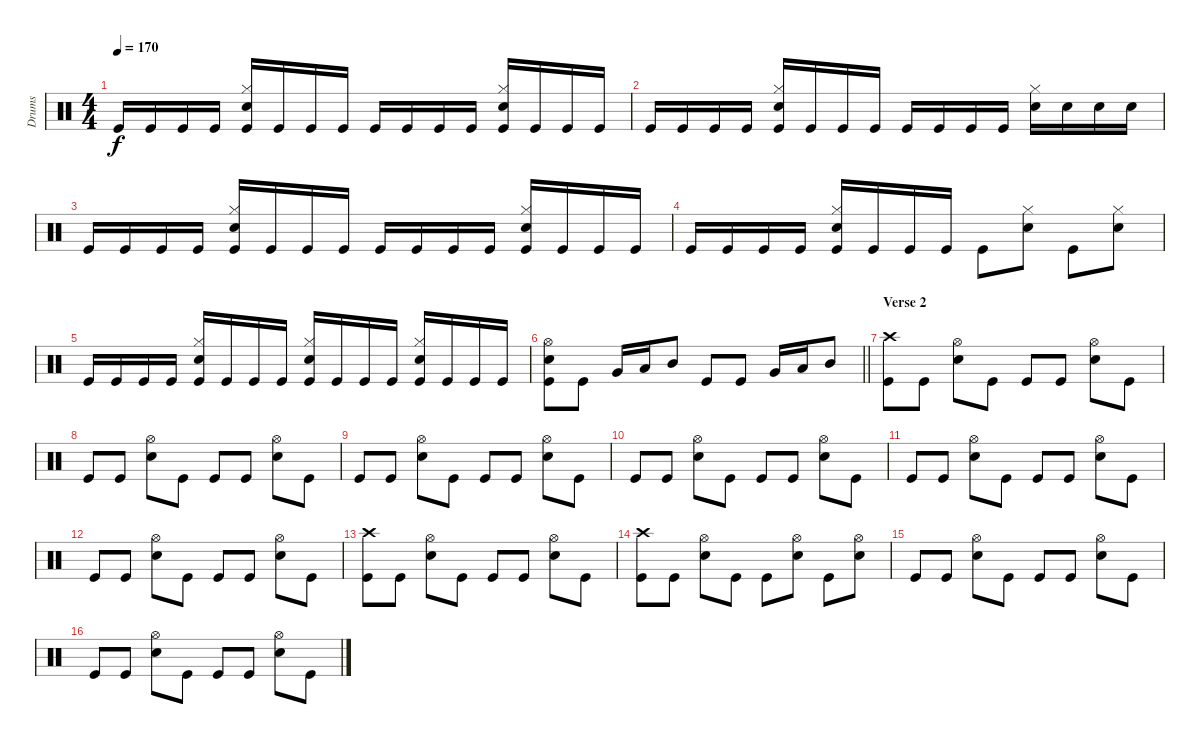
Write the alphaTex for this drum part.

\track ("Drums" "Drums") {instrument percussion}
\staff {score}
\articulation defaults
\ts (4 4)
\tempo 170
\clef neutral
\ks c "Kick (hit)".16{dy f} "Kick (hit)".16 "Kick (hit)".16 "Kick (hit)".16
("Hi-Hat (closed)" "Snare (hit) 2" "Kick (hit)").16 "Kick (hit)".16 "Kick (hit)".16 "Kick (hit)".16 "Kick (hit)".16 "Kick (hit)".16 "Kick (hit)".16 "Kick (hit)".16 ("Hi-Hat (closed)" "Snare (hit) 2" "Kick (hit)").16 "Kick (hit)".16 "Kick (hit)".16 "Kick (hit)".16 |
"Kick (hit)".16 "Kick (hit)".16 "Kick (hit)".16 "Kick (hit)".16 ("Hi-Hat (closed)" "Snare (hit) 2" "Kick (hit)").16 "Kick (hit)".16 "Kick (hit)".16 "Kick (hit)".16 "Kick (hit)".16 "Kick (hit)".16 "Kick (hit)".16 "Kick (hit)".16 ("Hi-Hat (closed)" "Snare (hit) 2").16 "Snare (hit) 2".16 "Snare (hit) 2".16 "Snare (hit) 2".16 |
"Kick (hit)".16 "Kick (hit)".16 "Kick (hit)".16 "Kick (hit)".16 ("Hi-Hat (closed)" "Snare (hit) 2" "Kick (hit)").16 "Kick (hit)".16 "Kick (hit)".16 "Kick (hit)".16 "Kick (hit)".16 "Kick (hit)".16 "Kick (hit)".16 "Kick (hit)".16 ("Hi-Hat (closed)" "Snare (hit) 2" "Kick (hit)").16 "Kick (hit)".16 "Kick (hit)".16 "Kick (hit)".16 |
"Kick (hit)".16 "Kick (hit)".16 "Kick (hit)".16 "Kick (hit)".16 ("Hi-Hat (closed)" "Snare (hit) 2" "Kick (hit)").16 "Kick (hit)".16 "Kick (hit)".16 "Kick (hit)".16 "Kick (hit)".8 ("Hi-Hat (closed)" "Snare (hit) 2").8 "Kick (hit)".8 ("Hi-Hat (closed)" "Snare (hit) 2").8 |
"Kick (hit)".16 "Kick (hit)".16 "Kick (hit)".16 "Kick (hit)".16 ("Hi-Hat (closed)" "Snare (hit) 2" "Kick (hit)").16 "Kick (hit)".16 "Kick (hit)".16 "Kick (hit)".16 ("Hi-Hat (closed)" "Snare (hit) 2" "Kick (hit)").16 "Kick (hit)".16 "Kick (hit)".16 "Kick (hit)".16 ("Hi-Hat (closed)" "Snare (hit) 2" "Kick (hit)").16 "Kick (hit)".16 "Kick (hit)".16 "Kick (hit)".16 |
\barLineRight lightlight
("Hi-Hat (open)" "Snare (hit) 2" "Kick (hit)").8 "Kick (hit)".8 "Very Low Tom (hit)".16 "Low Tom (hit)".16 "Mid Tom (hit)".8 "Kick (hit)".8 "Kick (hit)".8 "Very Low Tom (hit)".16 "Low Tom (hit)".16 "Mid Tom (hit)".8 |
\section ("" "Verse 2")
("Crash high (hit)" "Kick (hit)").8 "Kick (hit)".8 ("Hi-Hat (open)" "Snare (hit) 2").8 "Kick (hit)".8 "Kick (hit)".8 "Kick (hit)".8 ("Hi-Hat (open)" "Snare (hit) 2").8 "Kick (hit)".8 |
"Kick (hit)".8 "Kick (hit)".8 ("Hi-Hat (open)" "Snare (hit) 2").8 "Kick (hit)".8 "Kick (hit)".8 "Kick (hit)".8 ("Hi-Hat (open)" "Snare (hit) 2").8 "Kick (hit)".8 |
"Kick (hit)".8 "Kick (hit)".8 ("Hi-Hat (open)" "Snare (hit) 2").8 "Kick (hit)".8 "Kick (hit)".8 "Kick (hit)".8 ("Hi-Hat (open)" "Snare (hit) 2").8 "Kick (hit)".8 |
"Kick (hit)".8 "Kick (hit)".8 ("Hi-Hat (open)" "Snare (hit) 2").8 "Kick (hit)".8 "Kick (hit)".8 "Kick (hit)".8 ("Hi-Hat (open)" "Snare (hit) 2").8 "Kick (hit)".8 |
"Kick (hit)".8 "Kick (hit)".8 ("Hi-Hat (open)" "Snare (hit) 2").8 "Kick (hit)".8 "Kick (hit)".8 "Kick (hit)".8 ("Hi-Hat (open)" "Snare (hit) 2").8 "Kick (hit)".8 |
"Kick (hit)".8 "Kick (hit)".8 ("Hi-Hat (open)" "Snare (hit) 2").8 "Kick (hit)".8 "Kick (hit)".8 "Kick (hit)".8 ("Hi-Hat (open)" "Snare (hit) 2").8 "Kick (hit)".8 |
("Crash high (hit)" "Kick (hit)").8 "Kick (hit)".8 ("Hi-Hat (open)" "Snare (hit) 2").8 "Kick (hit)".8 "Kick (hit)".8 "Kick (hit)".8 ("Hi-Hat (open)" "Snare (hit) 2").8 "Kick (hit)".8 |
("Crash high (hit)" "Kick (hit)").8 "Kick (hit)".8 ("Hi-Hat (open)" "Snare (hit) 2").8 "Kick (hit)".8 "Kick (hit)".8 ("Hi-Hat (open)" "Snare (hit) 2").8 "Kick (hit)".8 ("Hi-Hat (open)" "Snare (hit) 2").8 |
"Kick (hit)".8 "Kick (hit)".8 ("Hi-Hat (open)" "Snare (hit) 2").8 "Kick (hit)".8 "Kick (hit)".8 "Kick (hit)".8 ("Hi-Hat (open)" "Snare (hit) 2").8 "Kick (hit)".8 |
"Kick (hit)".8 "Kick (hit)".8 ("Hi-Hat (open)" "Snare (hit) 2").8 "Kick (hit)".8 "Kick (hit)".8 "Kick (hit)".8 ("Hi-Hat (open)" "Snare (hit) 2").8 "Kick (hit)".8
